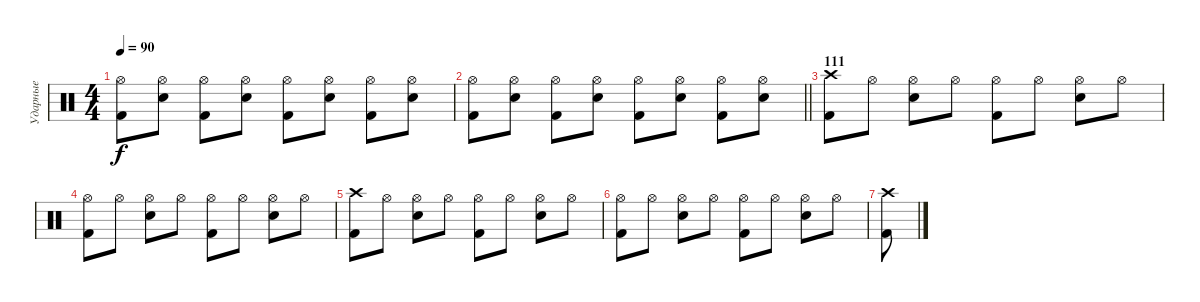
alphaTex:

\track ("Ударные" "Ударные") {instrument percussion}
\staff {score}
\articulation defaults
\ts (4 4)
\tempo 90
\clef neutral
\ks c
("Hi-Hat (open)" "Kick (hit) 2").8{dy f} ("Hi-Hat (open)" "Electric Snare (hit)").8 ("Hi-Hat (open)" "Kick (hit) 2").8 ("Hi-Hat (open)" "Electric Snare (hit)").8 ("Hi-Hat (open)" "Kick (hit) 2").8 ("Hi-Hat (open)" "Electric Snare (hit)").8 ("Hi-Hat (open)" "Kick (hit) 2").8 ("Hi-Hat (open)" "Electric Snare (hit)").8 |
\barLineRight lightlight
("Hi-Hat (open)" "Kick (hit) 2").8 ("Hi-Hat (open)" "Electric Snare (hit)").8 ("Hi-Hat (open)" "Kick (hit) 2").8 ("Hi-Hat (open)" "Electric Snare (hit)").8 ("Hi-Hat (open)" "Kick (hit) 2").8 ("Hi-Hat (open)" "Electric Snare (hit)").8 ("Hi-Hat (open)" "Kick (hit) 2").8 ("Hi-Hat (open)" "Electric Snare (hit)").8 |
\section ("" "111")
("Crash high (hit)" "Kick (hit) 2").8 "Hi-Hat (open)".8 ("Hi-Hat (open)" "Electric Snare (hit)").8 "Hi-Hat (open)".8 ("Hi-Hat (open)" "Kick (hit) 2").8 "Hi-Hat (open)".8 ("Hi-Hat (open)" "Electric Snare (hit)").8 "Hi-Hat (open)".8 |
("Hi-Hat (open)" "Kick (hit) 2").8 "Hi-Hat (open)".8 ("Hi-Hat (open)" "Electric Snare (hit)").8 "Hi-Hat (open)".8 ("Hi-Hat (open)" "Kick (hit) 2").8 "Hi-Hat (open)".8 ("Hi-Hat (open)" "Electric Snare (hit)").8 "Hi-Hat (open)".8 |
("Crash high (hit)" "Kick (hit) 2").8 "Hi-Hat (open)".8 ("Hi-Hat (open)" "Electric Snare (hit)").8 "Hi-Hat (open)".8 ("Hi-Hat (open)" "Kick (hit) 2").8 "Hi-Hat (open)".8 ("Hi-Hat (open)" "Electric Snare (hit)").8 "Hi-Hat (open)".8 |
("Hi-Hat (open)" "Kick (hit) 2").8 "Hi-Hat (open)".8 ("Hi-Hat (open)" "Electric Snare (hit)").8 "Hi-Hat (open)".8 ("Hi-Hat (open)" "Kick (hit) 2").8 "Hi-Hat (open)".8 ("Hi-Hat (open)" "Electric Snare (hit)").8 "Hi-Hat (open)".8 |
("Kick (hit) 2" "Crash high (hit)").8
